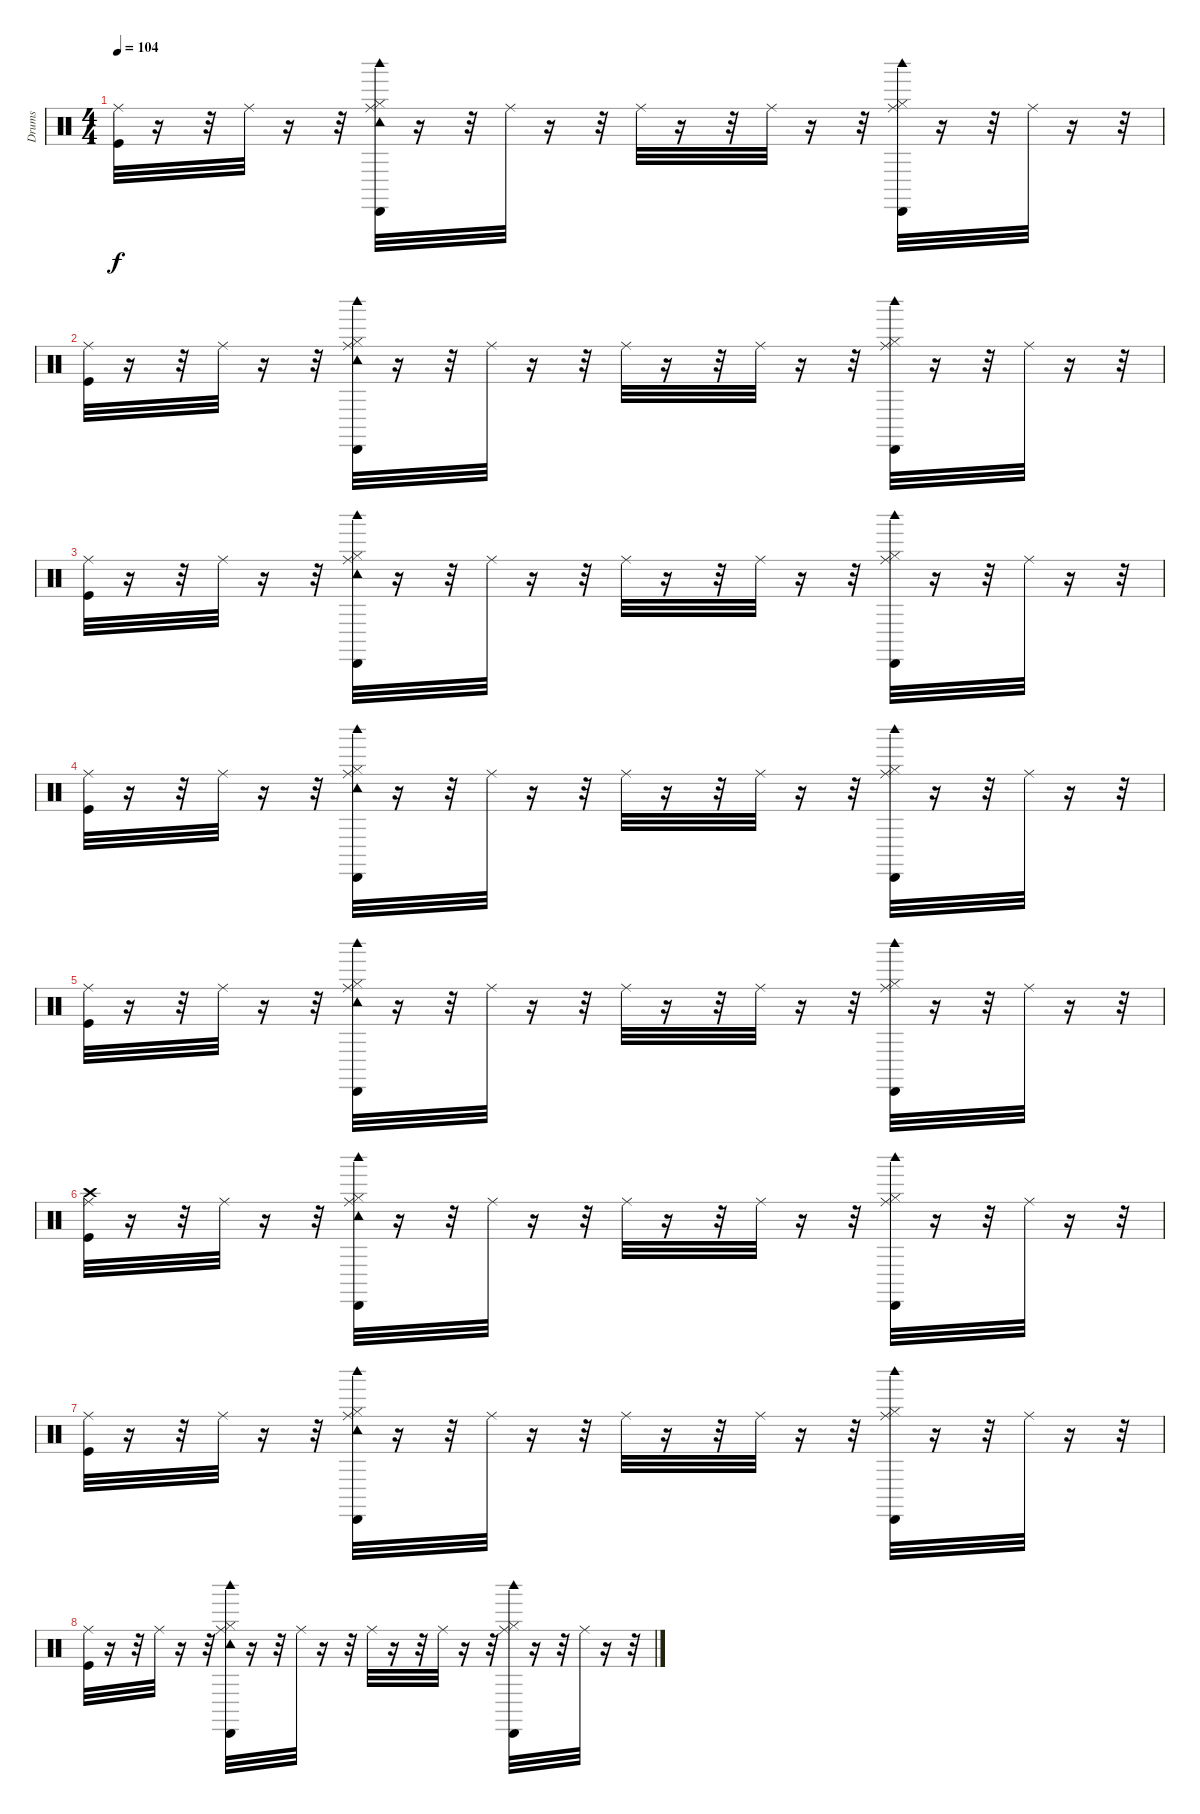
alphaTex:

\track ("Drums" "Drums") {instrument percussion}
\staff {score}
\articulation defaults
\ts (4 4)
\tempo 104
\clef neutral
\ks c
("Kick (hit)" "Ride (middle)").32{dy f} r.16 r.32 "Ride (middle)".32 r.16 r.32 ("Hi-Hat (closed)" "Ride (middle)" "Tambourine (hit)" "Cabasa (hit)" "Woodblock high (hit)").32 r.16 r.32 "Ride (middle)".32 r.16 r.32 "Ride (middle)".32 r.16 r.32 "Ride (middle)".32 r.16 r.32 ("Hi-Hat (closed)" "Ride (middle)" "Cabasa (hit)" "Woodblock high (hit)").32 r.16 r.32 "Ride (middle)".32 r.16 r.32 |
("Kick (hit)" "Ride (middle)").32 r.16 r.32 "Ride (middle)".32 r.16 r.32 ("Hi-Hat (closed)" "Ride (middle)" "Tambourine (hit)" "Cabasa (hit)" "Woodblock high (hit)").32 r.16 r.32 "Ride (middle)".32 r.16 r.32 "Ride (middle)".32 r.16 r.32 "Ride (middle)".32 r.16 r.32 ("Hi-Hat (closed)" "Ride (middle)" "Cabasa (hit)" "Woodblock high (hit)").32 r.16 r.32 "Ride (middle)".32 r.16 r.32 |
("Kick (hit)" "Ride (middle)").32 r.16 r.32 "Ride (middle)".32 r.16 r.32 ("Hi-Hat (closed)" "Ride (middle)" "Tambourine (hit)" "Cabasa (hit)" "Woodblock high (hit)").32 r.16 r.32 "Ride (middle)".32 r.16 r.32 "Ride (middle)".32 r.16 r.32 "Ride (middle)".32 r.16 r.32 ("Hi-Hat (closed)" "Ride (middle)" "Cabasa (hit)" "Woodblock high (hit)").32 r.16 r.32 "Ride (middle)".32 r.16 r.32 |
("Kick (hit)" "Ride (middle)").32 r.16 r.32 "Ride (middle)".32 r.16 r.32 ("Hi-Hat (closed)" "Ride (middle)" "Tambourine (hit)" "Cabasa (hit)" "Woodblock high (hit)").32 r.16 r.32 "Ride (middle)".32 r.16 r.32 "Ride (middle)".32 r.16 r.32 "Ride (middle)".32 r.16 r.32 ("Hi-Hat (closed)" "Ride (middle)" "Cabasa (hit)" "Woodblock high (hit)").32 r.16 r.32 "Ride (middle)".32 r.16 r.32 |
("Kick (hit)" "Ride (middle)").32 r.16 r.32 "Ride (middle)".32 r.16 r.32 ("Hi-Hat (closed)" "Ride (middle)" "Tambourine (hit)" "Cabasa (hit)" "Woodblock high (hit)").32 r.16 r.32 "Ride (middle)".32 r.16 r.32 "Ride (middle)".32 r.16 r.32 "Ride (middle)".32 r.16 r.32 ("Hi-Hat (closed)" "Ride (middle)" "Cabasa (hit)" "Woodblock high (hit)").32 r.16 r.32 "Ride (middle)".32 r.16 r.32 |
("Kick (hit)" "Crash high (hit)" "Ride (middle)").32 r.16 r.32 "Ride (middle)".32 r.16 r.32 ("Hi-Hat (closed)" "Ride (middle)" "Tambourine (hit)" "Cabasa (hit)" "Woodblock high (hit)").32 r.16 r.32 "Ride (middle)".32 r.16 r.32 "Ride (middle)".32 r.16 r.32 "Ride (middle)".32 r.16 r.32 ("Hi-Hat (closed)" "Ride (middle)" "Cabasa (hit)" "Woodblock high (hit)").32 r.16 r.32 "Ride (middle)".32 r.16 r.32 |
("Kick (hit)" "Ride (middle)").32 r.16 r.32 "Ride (middle)".32 r.16 r.32 ("Hi-Hat (closed)" "Ride (middle)" "Tambourine (hit)" "Cabasa (hit)" "Woodblock high (hit)").32 r.16 r.32 "Ride (middle)".32 r.16 r.32 "Ride (middle)".32 r.16 r.32 "Ride (middle)".32 r.16 r.32 ("Hi-Hat (closed)" "Ride (middle)" "Cabasa (hit)" "Woodblock high (hit)").32 r.16 r.32 "Ride (middle)".32 r.16 r.32 |
("Kick (hit)" "Ride (middle)").32 r.16 r.32 "Ride (middle)".32 r.16 r.32 ("Hi-Hat (closed)" "Ride (middle)" "Tambourine (hit)" "Cabasa (hit)" "Woodblock high (hit)").32 r.16 r.32 "Ride (middle)".32 r.16 r.32 "Ride (middle)".32 r.16 r.32 "Ride (middle)".32 r.16 r.32 ("Hi-Hat (closed)" "Ride (middle)" "Cabasa (hit)" "Woodblock high (hit)").32 r.16 r.32 "Ride (middle)".32 r.16 r.32
